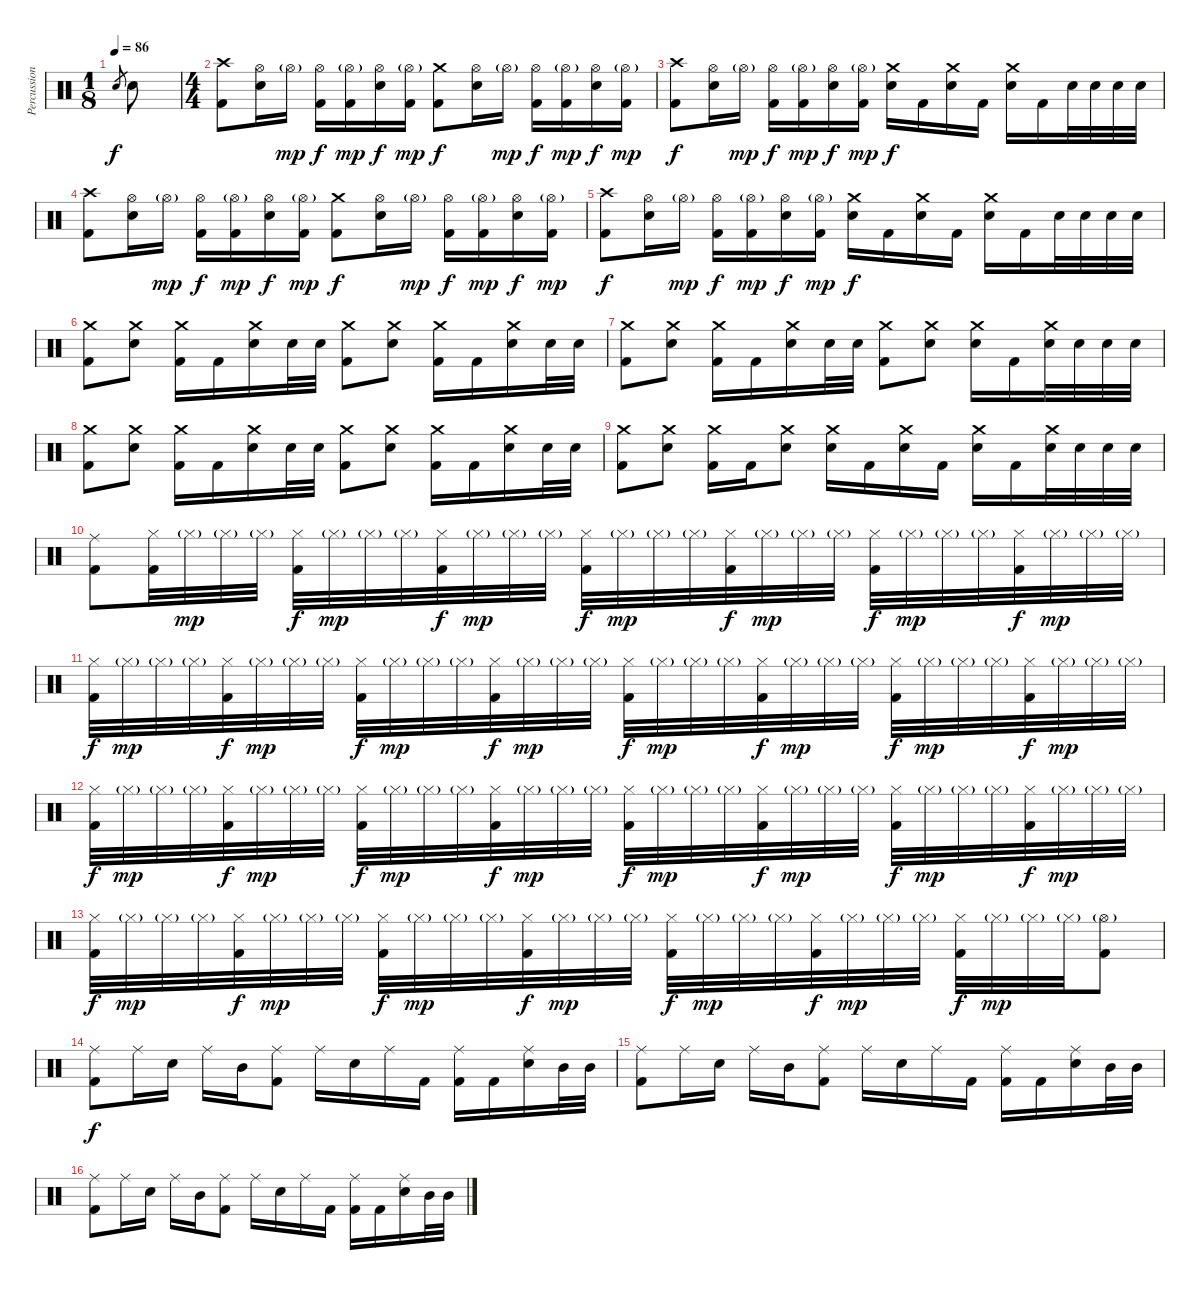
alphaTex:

\track ("Percussion" "Percussion") {instrument percussion}
\staff {score}
\articulation defaults
\ts (1 8)
\tempo 86
\clef neutral
\ks c "Electric Snare (hit)".8{gr dy f} "Electric Snare (hit)".8
|
\ts (4 4)
("Crash high (hit)" "Kick (hit) 2").8 ("Hi-Hat (open)" "Electric Snare (hit)").16 "Hi-Hat (open)"{g}.16{dy mp} ("Hi-Hat (open)" "Kick (hit) 2").16{dy f} ("Hi-Hat (open)"{g} "Kick (hit) 2").16{dy mp} ("Hi-Hat (open)" "Electric Snare (hit)").16{dy f} ("Hi-Hat (open)"{g} "Kick (hit) 2").16{dy mp} ("Crash medium (hit)" "Kick (hit) 2").8{dy f} ("Hi-Hat (open)" "Electric Snare (hit)").16 "Hi-Hat (open)"{g}.16{dy mp} ("Hi-Hat (open)" "Kick (hit) 2").16{dy f} ("Hi-Hat (open)"{g} "Kick (hit) 2").16{dy mp} ("Hi-Hat (open)" "Electric Snare (hit)").16{dy f} ("Hi-Hat (open)"{g} "Kick (hit) 2").16{dy mp} |
("Crash high (hit)" "Kick (hit) 2").8{dy f} ("Hi-Hat (open)" "Electric Snare (hit)").16 "Hi-Hat (open)"{g}.16{dy mp} ("Hi-Hat (open)" "Kick (hit) 2").16{dy f} ("Hi-Hat (open)"{g} "Kick (hit) 2").16{dy mp} ("Hi-Hat (open)" "Electric Snare (hit)").16{dy f} ("Hi-Hat (open)"{g} "Kick (hit) 2").16{dy mp} ("Crash medium (hit)" "Electric Snare (hit)").16{dy f} "Kick (hit) 2".16 ("Crash medium (hit)" "Electric Snare (hit)").16 "Kick (hit) 2".16 ("Crash medium (hit)" "Electric Snare (hit)").16 "Kick (hit) 2".16 "Electric Snare (hit)".32 "Electric Snare (hit)".32 "Electric Snare (hit)".32 "Electric Snare (hit)".32 |
("Crash high (hit)" "Kick (hit) 2").8 ("Hi-Hat (open)" "Electric Snare (hit)").16 "Hi-Hat (open)"{g}.16{dy mp} ("Hi-Hat (open)" "Kick (hit) 2").16{dy f} ("Hi-Hat (open)"{g} "Kick (hit) 2").16{dy mp} ("Hi-Hat (open)" "Electric Snare (hit)").16{dy f} ("Hi-Hat (open)"{g} "Kick (hit) 2").16{dy mp} ("Crash medium (hit)" "Kick (hit) 2").8{dy f} ("Hi-Hat (open)" "Electric Snare (hit)").16 "Hi-Hat (open)"{g}.16{dy mp} ("Hi-Hat (open)" "Kick (hit) 2").16{dy f} ("Hi-Hat (open)"{g} "Kick (hit) 2").16{dy mp} ("Hi-Hat (open)" "Electric Snare (hit)").16{dy f} ("Hi-Hat (open)"{g} "Kick (hit) 2").16{dy mp} |
("Crash high (hit)" "Kick (hit) 2").8{dy f} ("Hi-Hat (open)" "Electric Snare (hit)").16 "Hi-Hat (open)"{g}.16{dy mp} ("Hi-Hat (open)" "Kick (hit) 2").16{dy f} ("Hi-Hat (open)"{g} "Kick (hit) 2").16{dy mp} ("Hi-Hat (open)" "Electric Snare (hit)").16{dy f} ("Hi-Hat (open)"{g} "Kick (hit) 2").16{dy mp} ("Crash medium (hit)" "Electric Snare (hit)").16{dy f} "Kick (hit) 2".16 ("Crash medium (hit)" "Electric Snare (hit)").16 "Kick (hit) 2".16 ("Crash medium (hit)" "Electric Snare (hit)").16 "Kick (hit) 2".16 "Electric Snare (hit)".32 "Electric Snare (hit)".32 "Electric Snare (hit)".32 "Electric Snare (hit)".32 |
("Crash medium (hit)" "Kick (hit) 2").8 ("Crash medium (hit)" "Electric Snare (hit)").8 ("Crash medium (hit)" "Kick (hit) 2").16 "Kick (hit) 2".16 ("Crash medium (hit)" "Electric Snare (hit)").16 "Electric Snare (hit)".32 "Electric Snare (hit)".32 ("Crash medium (hit)" "Kick (hit) 2").8 ("Crash medium (hit)" "Electric Snare (hit)").8 ("Crash medium (hit)" "Kick (hit) 2").16 "Kick (hit) 2".16 ("Crash medium (hit)" "Electric Snare (hit)").16 "Electric Snare (hit)".32 "Electric Snare (hit)".32 |
("Crash medium (hit)" "Kick (hit) 2").8 ("Crash medium (hit)" "Electric Snare (hit)").8 ("Crash medium (hit)" "Kick (hit) 2").16 "Kick (hit) 2".16 ("Crash medium (hit)" "Electric Snare (hit)").16 "Electric Snare (hit)".32 "Electric Snare (hit)".32 ("Crash medium (hit)" "Kick (hit) 2").8 ("Crash medium (hit)" "Electric Snare (hit)").8 ("Crash medium (hit)" "Electric Snare (hit)").16 "Kick (hit) 2".16 ("Crash medium (hit)" "Electric Snare (hit)").32 "Electric Snare (hit)".32 "Electric Snare (hit)".32 "Electric Snare (hit)".32 |
("Crash medium (hit)" "Kick (hit) 2").8 ("Crash medium (hit)" "Electric Snare (hit)").8 ("Crash medium (hit)" "Kick (hit) 2").16 "Kick (hit) 2".16 ("Crash medium (hit)" "Electric Snare (hit)").16 "Electric Snare (hit)".32 "Electric Snare (hit)".32 ("Crash medium (hit)" "Kick (hit) 2").8 ("Crash medium (hit)" "Electric Snare (hit)").8 ("Crash medium (hit)" "Kick (hit) 2").16 "Kick (hit) 2".16 ("Crash medium (hit)" "Electric Snare (hit)").16 "Electric Snare (hit)".32 "Electric Snare (hit)".32 |
("Crash medium (hit)" "Kick (hit) 2").8 ("Crash medium (hit)" "Electric Snare (hit)").8 ("Crash medium (hit)" "Kick (hit) 2").16 "Kick (hit) 2".16 ("Crash medium (hit)" "Electric Snare (hit)").8 ("Crash medium (hit)" "Electric Snare (hit)").16 "Kick (hit) 2".16 ("Crash medium (hit)" "Electric Snare (hit)").16 "Kick (hit) 2".16 ("Crash medium (hit)" "Electric Snare (hit)").16 "Kick (hit) 2".16 ("Crash medium (hit)" "Electric Snare (hit)").32 "Electric Snare (hit)".32 "Electric Snare (hit)".32 "Electric Snare (hit)".32 |
("Ride (middle)" "Kick (hit) 2").8 ("Hi-Hat (closed)" "Kick (hit) 2").32 "Hi-Hat (closed)"{g}.32{dy mp} "Hi-Hat (closed)"{g}.32 "Hi-Hat (closed)"{g}.32 ("Hi-Hat (closed)" "Kick (hit) 2").32{dy f} "Hi-Hat (closed)"{g}.32{dy mp} "Hi-Hat (closed)"{g}.32 "Hi-Hat (closed)"{g}.32 ("Hi-Hat (closed)" "Kick (hit) 2").32{dy f} "Hi-Hat (closed)"{g}.32{dy mp} "Hi-Hat (closed)"{g}.32 "Hi-Hat (closed)"{g}.32 ("Hi-Hat (closed)" "Kick (hit) 2").32{dy f} "Hi-Hat (closed)"{g}.32{dy mp} "Hi-Hat (closed)"{g}.32 "Hi-Hat (closed)"{g}.32 ("Hi-Hat (closed)" "Kick (hit) 2").32{dy f} "Hi-Hat (closed)"{g}.32{dy mp} "Hi-Hat (closed)"{g}.32 "Hi-Hat (closed)"{g}.32 ("Hi-Hat (closed)" "Kick (hit) 2").32{dy f} "Hi-Hat (closed)"{g}.32{dy mp} "Hi-Hat (closed)"{g}.32 "Hi-Hat (closed)"{g}.32 ("Hi-Hat (closed)" "Kick (hit) 2").32{dy f} "Hi-Hat (closed)"{g}.32{dy mp} "Hi-Hat (closed)"{g}.32 "Hi-Hat (closed)"{g}.32 |
("Hi-Hat (closed)" "Kick (hit) 2").32{dy f} "Hi-Hat (closed)"{g}.32{dy mp} "Hi-Hat (closed)"{g}.32 "Hi-Hat (closed)"{g}.32 ("Hi-Hat (closed)" "Kick (hit) 2").32{dy f} "Hi-Hat (closed)"{g}.32{dy mp} "Hi-Hat (closed)"{g}.32 "Hi-Hat (closed)"{g}.32 ("Hi-Hat (closed)" "Kick (hit) 2").32{dy f} "Hi-Hat (closed)"{g}.32{dy mp} "Hi-Hat (closed)"{g}.32 "Hi-Hat (closed)"{g}.32 ("Hi-Hat (closed)" "Kick (hit) 2").32{dy f} "Hi-Hat (closed)"{g}.32{dy mp} "Hi-Hat (closed)"{g}.32 "Hi-Hat (closed)"{g}.32 ("Hi-Hat (closed)" "Kick (hit) 2").32{dy f} "Hi-Hat (closed)"{g}.32{dy mp} "Hi-Hat (closed)"{g}.32 "Hi-Hat (closed)"{g}.32 ("Hi-Hat (closed)" "Kick (hit) 2").32{dy f} "Hi-Hat (closed)"{g}.32{dy mp} "Hi-Hat (closed)"{g}.32 "Hi-Hat (closed)"{g}.32 ("Hi-Hat (closed)" "Kick (hit) 2").32{dy f} "Hi-Hat (closed)"{g}.32{dy mp} "Hi-Hat (closed)"{g}.32 "Hi-Hat (closed)"{g}.32 ("Hi-Hat (closed)" "Kick (hit) 2").32{dy f} "Hi-Hat (closed)"{g}.32{dy mp} "Hi-Hat (closed)"{g}.32 "Hi-Hat (closed)"{g}.32 |
("Hi-Hat (closed)" "Kick (hit) 2").32{dy f} "Hi-Hat (closed)"{g}.32{dy mp} "Hi-Hat (closed)"{g}.32 "Hi-Hat (closed)"{g}.32 ("Hi-Hat (closed)" "Kick (hit) 2").32{dy f} "Hi-Hat (closed)"{g}.32{dy mp} "Hi-Hat (closed)"{g}.32 "Hi-Hat (closed)"{g}.32 ("Hi-Hat (closed)" "Kick (hit) 2").32{dy f} "Hi-Hat (closed)"{g}.32{dy mp} "Hi-Hat (closed)"{g}.32 "Hi-Hat (closed)"{g}.32 ("Hi-Hat (closed)" "Kick (hit) 2").32{dy f} "Hi-Hat (closed)"{g}.32{dy mp} "Hi-Hat (closed)"{g}.32 "Hi-Hat (closed)"{g}.32 ("Hi-Hat (closed)" "Kick (hit) 2").32{dy f} "Hi-Hat (closed)"{g}.32{dy mp} "Hi-Hat (closed)"{g}.32 "Hi-Hat (closed)"{g}.32 ("Hi-Hat (closed)" "Kick (hit) 2").32{dy f} "Hi-Hat (closed)"{g}.32{dy mp} "Hi-Hat (closed)"{g}.32 "Hi-Hat (closed)"{g}.32 ("Hi-Hat (closed)" "Kick (hit) 2").32{dy f} "Hi-Hat (closed)"{g}.32{dy mp} "Hi-Hat (closed)"{g}.32 "Hi-Hat (closed)"{g}.32 ("Hi-Hat (closed)" "Kick (hit) 2").32{dy f} "Hi-Hat (closed)"{g}.32{dy mp} "Hi-Hat (closed)"{g}.32 "Hi-Hat (closed)"{g}.32 |
("Hi-Hat (closed)" "Kick (hit) 2").32{dy f} "Hi-Hat (closed)"{g}.32{dy mp} "Hi-Hat (closed)"{g}.32 "Hi-Hat (closed)"{g}.32 ("Hi-Hat (closed)" "Kick (hit) 2").32{dy f} "Hi-Hat (closed)"{g}.32{dy mp} "Hi-Hat (closed)"{g}.32 "Hi-Hat (closed)"{g}.32 ("Hi-Hat (closed)" "Kick (hit) 2").32{dy f} "Hi-Hat (closed)"{g}.32{dy mp} "Hi-Hat (closed)"{g}.32 "Hi-Hat (closed)"{g}.32 ("Hi-Hat (closed)" "Kick (hit) 2").32{dy f} "Hi-Hat (closed)"{g}.32{dy mp} "Hi-Hat (closed)"{g}.32 "Hi-Hat (closed)"{g}.32 ("Hi-Hat (closed)" "Kick (hit) 2").32{dy f} "Hi-Hat (closed)"{g}.32{dy mp} "Hi-Hat (closed)"{g}.32 "Hi-Hat (closed)"{g}.32 ("Hi-Hat (closed)" "Kick (hit) 2").32{dy f} "Hi-Hat (closed)"{g}.32{dy mp} "Hi-Hat (closed)"{g}.32 "Hi-Hat (closed)"{g}.32 ("Hi-Hat (closed)" "Kick (hit) 2").32{dy f} "Hi-Hat (closed)"{g}.32{dy mp} "Hi-Hat (closed)"{g}.32 "Hi-Hat (closed)"{g}.32 ("Hi-Hat (open)"{g} "Kick (hit) 2").8 |
("Ride (middle)" "Kick (hit) 2").8{dy f} "Ride (middle)".16 "Electric Snare (hit)".16 "Ride (middle)".16 "Mid Tom (hit)".16 ("Ride (middle)" "Kick (hit) 2").8 "Ride (middle)".16 "Electric Snare (hit)".16 "Ride (middle)".16 "Kick (hit) 2".16 ("Ride (middle)" "Kick (hit) 2").16 "Kick (hit) 2".16 ("Ride (middle)" "Electric Snare (hit)").16 "Mid Tom (hit)".32 "Mid Tom (hit)".32 |
("Ride (middle)" "Kick (hit) 2").8 "Ride (middle)".16 "Electric Snare (hit)".16 "Ride (middle)".16 "Mid Tom (hit)".16 ("Ride (middle)" "Kick (hit) 2").8 "Ride (middle)".16 "Electric Snare (hit)".16 "Ride (middle)".16 "Kick (hit) 2".16 ("Ride (middle)" "Kick (hit) 2").16 "Kick (hit) 2".16 ("Ride (middle)" "Electric Snare (hit)").16 "Mid Tom (hit)".32 "Mid Tom (hit)".32 |
("Ride (middle)" "Kick (hit) 2").8 "Ride (middle)".16 "Electric Snare (hit)".16 "Ride (middle)".16 "Mid Tom (hit)".16 ("Ride (middle)" "Kick (hit) 2").8 "Ride (middle)".16 "Electric Snare (hit)".16 "Ride (middle)".16 "Kick (hit) 2".16 ("Ride (middle)" "Kick (hit) 2").16 "Kick (hit) 2".16 ("Ride (middle)" "Electric Snare (hit)").16 "Mid Tom (hit)".32 "Mid Tom (hit)".32
